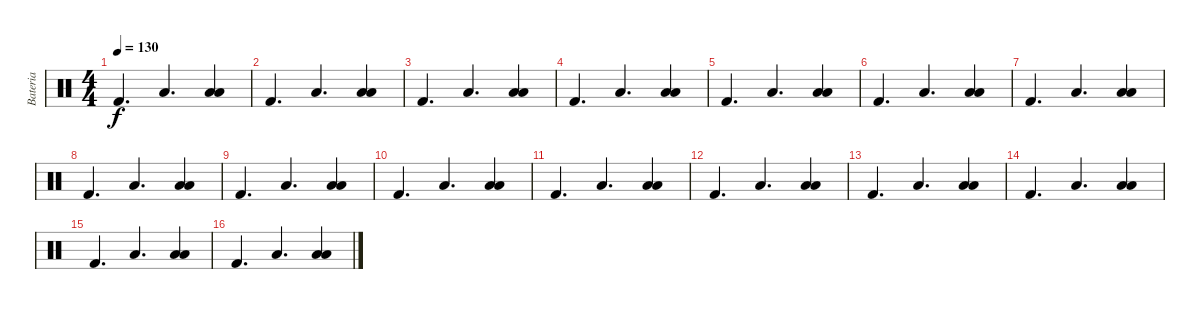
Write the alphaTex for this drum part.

\track ("Bateria" "Bateria") {instrument percussion}
\staff {score}
\articulation defaults
\ts (4 4)
\tempo 130
\clef neutral
\ks c "Kick (hit) 2".4{d dy f} "Low Tom (hit)".4{d}
("Low Tom (hit)" "Low Tom (hit)").4 |
"Kick (hit) 2".4{d} "Low Tom (hit)".4{d} ("Low Tom (hit)" "Low Tom (hit)").4 |
"Kick (hit) 2".4{d} "Low Tom (hit)".4{d} ("Low Tom (hit)" "Low Tom (hit)").4 |
"Kick (hit) 2".4{d} "Low Tom (hit)".4{d} ("Low Tom (hit)" "Low Tom (hit)").4 |
"Kick (hit) 2".4{d} "Low Tom (hit)".4{d} ("Low Tom (hit)" "Low Tom (hit)").4 |
"Kick (hit) 2".4{d} "Low Tom (hit)".4{d} ("Low Tom (hit)" "Low Tom (hit)").4 |
"Kick (hit) 2".4{d} "Low Tom (hit)".4{d} ("Low Tom (hit)" "Low Tom (hit)").4 |
"Kick (hit) 2".4{d} "Low Tom (hit)".4{d} ("Low Tom (hit)" "Low Tom (hit)").4 |
"Kick (hit) 2".4{d} "Low Tom (hit)".4{d} ("Low Tom (hit)" "Low Tom (hit)").4 |
"Kick (hit) 2".4{d} "Low Tom (hit)".4{d} ("Low Tom (hit)" "Low Tom (hit)").4 |
"Kick (hit) 2".4{d} "Low Tom (hit)".4{d} ("Low Tom (hit)" "Low Tom (hit)").4 |
"Kick (hit) 2".4{d} "Low Tom (hit)".4{d} ("Low Tom (hit)" "Low Tom (hit)").4 |
"Kick (hit) 2".4{d} "Low Tom (hit)".4{d} ("Low Tom (hit)" "Low Tom (hit)").4 |
"Kick (hit) 2".4{d} "Low Tom (hit)".4{d} ("Low Tom (hit)" "Low Tom (hit)").4 |
"Kick (hit) 2".4{d} "Low Tom (hit)".4{d} ("Low Tom (hit)" "Low Tom (hit)").4 |
"Kick (hit) 2".4{d} "Low Tom (hit)".4{d} ("Low Tom (hit)" "Low Tom (hit)").4
